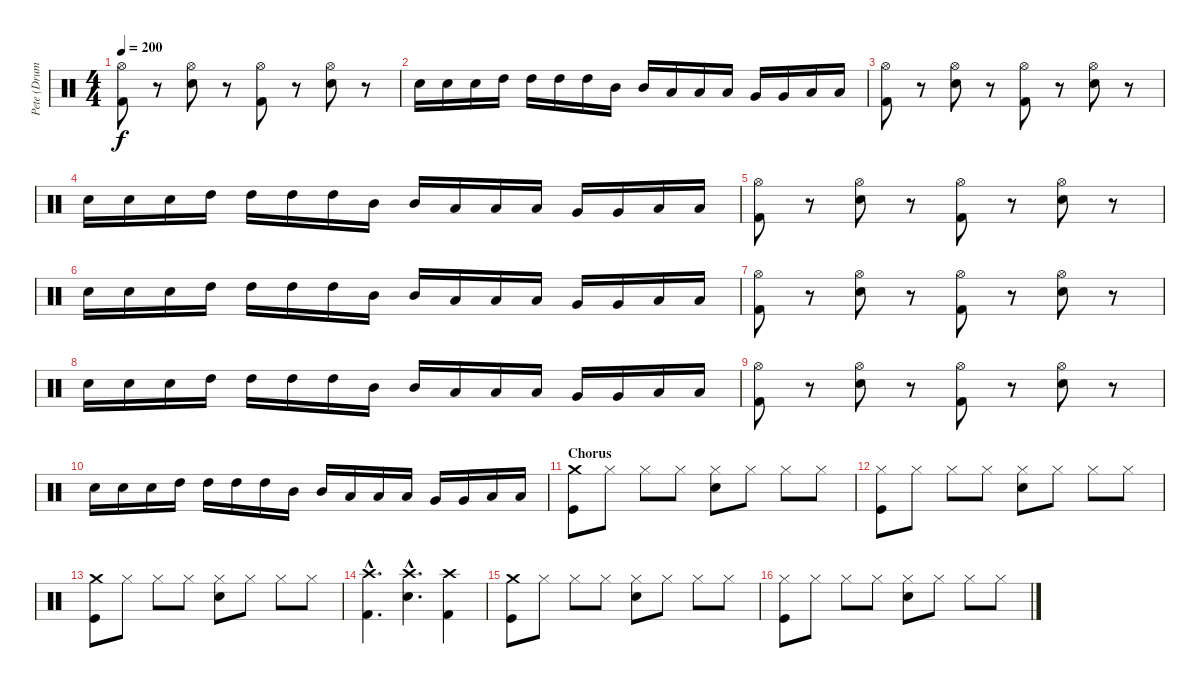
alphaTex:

\track ("Pete (Drums)" "Pete (Drum") {instrument percussion}
\staff {score}
\articulation defaults
\ts (4 4)
\tempo 200
\clef neutral
\ks c
("Hi-Hat (open)" "Kick (hit) 2").8{dy f} r.8 ("Hi-Hat (open)" "Snare (hit) 2").8 r.8 ("Hi-Hat (open)" "Kick (hit) 2").8 r.8 ("Hi-Hat (open)" "Snare (hit) 2").8 r.8 |
"Snare (hit) 2".16 "Snare (hit) 2".16 "Snare (hit) 2".16 "High Tom (hit)".16 "High Tom (hit)".16 "High Tom (hit)".16 "High Tom (hit)".16 "Mid Tom (hit)".16 "Mid Tom (hit)".16 "Low Tom (hit)".16 "Low Tom (hit)".16 "Low Tom (hit)".16 "Very Low Tom (hit)".16 "Very Low Tom (hit)".16 "Low Floor Tom (hit)".16 "Low Floor Tom (hit)".16 |
("Hi-Hat (open)" "Kick (hit) 2").8 r.8 ("Hi-Hat (open)" "Snare (hit) 2").8 r.8 ("Hi-Hat (open)" "Kick (hit) 2").8 r.8 ("Hi-Hat (open)" "Snare (hit) 2").8 r.8 |
"Snare (hit) 2".16 "Snare (hit) 2".16 "Snare (hit) 2".16 "High Tom (hit)".16 "High Tom (hit)".16 "High Tom (hit)".16 "High Tom (hit)".16 "Mid Tom (hit)".16 "Mid Tom (hit)".16 "Low Tom (hit)".16 "Low Tom (hit)".16 "Low Tom (hit)".16 "Very Low Tom (hit)".16 "Very Low Tom (hit)".16 "Low Floor Tom (hit)".16 "Low Floor Tom (hit)".16 |
("Hi-Hat (open)" "Kick (hit) 2").8 r.8 ("Hi-Hat (open)" "Snare (hit) 2").8 r.8 ("Hi-Hat (open)" "Kick (hit) 2").8 r.8 ("Hi-Hat (open)" "Snare (hit) 2").8 r.8 |
"Snare (hit) 2".16 "Snare (hit) 2".16 "Snare (hit) 2".16 "High Tom (hit)".16 "High Tom (hit)".16 "High Tom (hit)".16 "High Tom (hit)".16 "Mid Tom (hit)".16 "Mid Tom (hit)".16 "Low Tom (hit)".16 "Low Tom (hit)".16 "Low Tom (hit)".16 "Very Low Tom (hit)".16 "Very Low Tom (hit)".16 "Low Floor Tom (hit)".16 "Low Floor Tom (hit)".16 |
("Hi-Hat (open)" "Kick (hit) 2").8 r.8 ("Hi-Hat (open)" "Snare (hit) 2").8 r.8 ("Hi-Hat (open)" "Kick (hit) 2").8 r.8 ("Hi-Hat (open)" "Snare (hit) 2").8 r.8 |
"Snare (hit) 2".16 "Snare (hit) 2".16 "Snare (hit) 2".16 "High Tom (hit)".16 "High Tom (hit)".16 "High Tom (hit)".16 "High Tom (hit)".16 "Mid Tom (hit)".16 "Mid Tom (hit)".16 "Low Tom (hit)".16 "Low Tom (hit)".16 "Low Tom (hit)".16 "Very Low Tom (hit)".16 "Very Low Tom (hit)".16 "Low Floor Tom (hit)".16 "Low Floor Tom (hit)".16 |
("Hi-Hat (open)" "Kick (hit) 2").8 r.8 ("Hi-Hat (open)" "Snare (hit) 2").8 r.8 ("Hi-Hat (open)" "Kick (hit) 2").8 r.8 ("Hi-Hat (open)" "Snare (hit) 2").8 r.8 |
"Snare (hit) 2".16 "Snare (hit) 2".16 "Snare (hit) 2".16 "High Tom (hit)".16 "High Tom (hit)".16 "High Tom (hit)".16 "High Tom (hit)".16 "Mid Tom (hit)".16 "Mid Tom (hit)".16 "Low Tom (hit)".16 "Low Tom (hit)".16 "Low Tom (hit)".16 "Very Low Tom (hit)".16 "Very Low Tom (hit)".16 "Low Floor Tom (hit)".16 "Low Floor Tom (hit)".16 |
\section ("" "Chorus")
("Crash medium (hit)" "Kick (hit)").8 "Hi-Hat (closed)".8 "Hi-Hat (closed)".8 "Hi-Hat (closed)".8 ("Hi-Hat (closed)" "Snare (hit) 2").8 "Hi-Hat (closed)".8 "Hi-Hat (closed)".8 "Hi-Hat (closed)".8 |
("Hi-Hat (closed)" "Kick (hit)").8 "Hi-Hat (closed)".8 "Hi-Hat (closed)".8 "Hi-Hat (closed)".8 ("Hi-Hat (closed)" "Snare (hit) 2").8 "Hi-Hat (closed)".8 "Hi-Hat (closed)".8 "Hi-Hat (closed)".8 |
("Crash medium (hit)" "Kick (hit)").8 "Hi-Hat (closed)".8 "Hi-Hat (closed)".8 "Hi-Hat (closed)".8 ("Hi-Hat (closed)" "Snare (hit) 2").8 "Hi-Hat (closed)".8 "Hi-Hat (closed)".8 "Hi-Hat (closed)".8 |
("Crash high (hit)"{hac} "Kick (hit) 2"{hac}).4{d} ("Crash high (hit)"{hac} "Snare (hit) 2"{hac}).4{d} ("Crash high (hit)" "Kick (hit) 2").4 |
("Crash medium (hit)" "Kick (hit)").8 "Hi-Hat (closed)".8 "Hi-Hat (closed)".8 "Hi-Hat (closed)".8 ("Hi-Hat (closed)" "Snare (hit) 2").8 "Hi-Hat (closed)".8 "Hi-Hat (closed)".8 "Hi-Hat (closed)".8 |
("Hi-Hat (closed)" "Kick (hit)").8 "Hi-Hat (closed)".8 "Hi-Hat (closed)".8 "Hi-Hat (closed)".8 ("Hi-Hat (closed)" "Snare (hit) 2").8 "Hi-Hat (closed)".8 "Hi-Hat (closed)".8 "Hi-Hat (closed)".8
